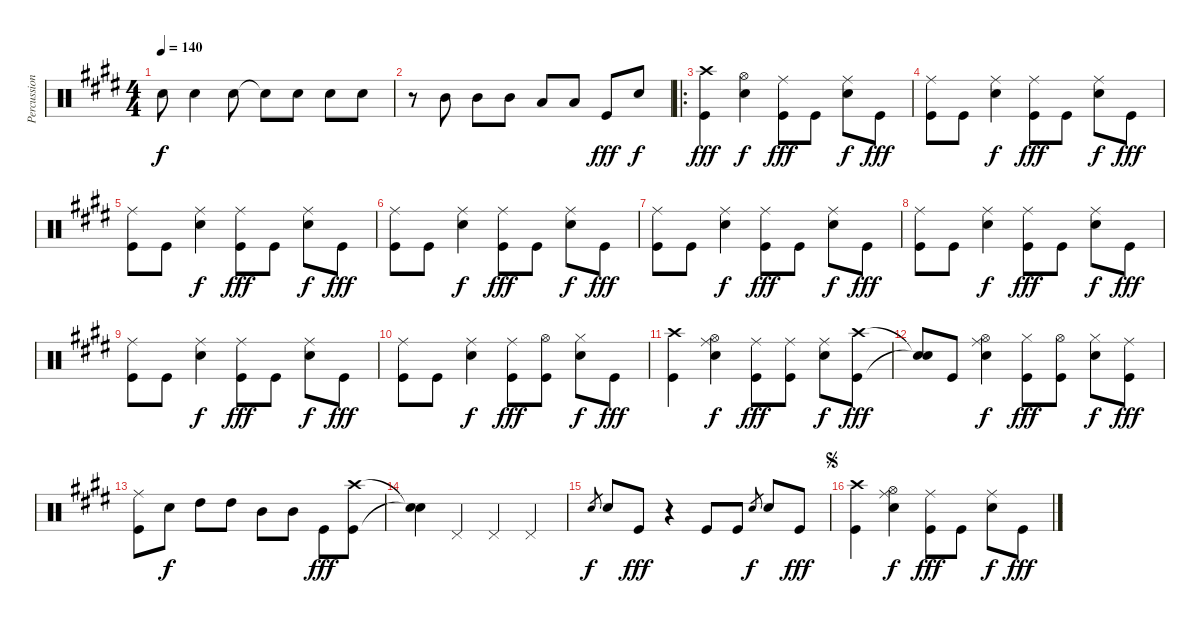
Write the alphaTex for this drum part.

\track ("Percussion" "Percussion") {instrument percussion}
\staff {score}
\articulation defaults
\ts (4 4)
\tempo 140
\clef neutral
\ks e "Snare (hit)"{t}.8{dy f} "Snare (hit) 2".4 "Snare (hit) 2".8 "Snare (hit)"{t}.8 "Snare (hit) 2".8 "Snare (hit) 2".8 "Snare (hit) 2".8
|
r.8 "Mid Tom (hit)".8 "Mid Tom (hit)".8 "Mid Tom (hit)".8 "Low Tom (hit)".8 "Low Tom (hit)".8 "Kick (hit)".8{dy fff} "Snare (hit) 2".8{dy f} |
\ro
("Crash high (hit)" "Kick (hit)").4{dy fff} ("Hi-Hat (open)" "Snare (hit) 2").4{dy f} ("Ride (middle)" "Kick (hit)").8{dy fff} "Kick (hit)".8 ("Ride (middle)" "Snare (hit) 2").8{dy f} "Kick (hit)".8{dy fff} |
("Ride (middle)" "Kick (hit)").8 "Kick (hit)".8 ("Ride (middle)" "Snare (hit) 2").4{dy f} ("Ride (middle)" "Kick (hit)").8{dy fff} "Kick (hit)".8 ("Ride (middle)" "Snare (hit) 2").8{dy f} "Kick (hit)".8{dy fff} |
("Ride (middle)" "Kick (hit)").8 "Kick (hit)".8 ("Ride (middle)" "Snare (hit) 2").4{dy f} ("Ride (middle)" "Kick (hit)").8{dy fff} "Kick (hit)".8 ("Ride (middle)" "Snare (hit) 2").8{dy f} "Kick (hit)".8{dy fff} |
("Ride (middle)" "Kick (hit)").8 "Kick (hit)".8 ("Ride (middle)" "Snare (hit) 2").4{dy f} ("Ride (middle)" "Kick (hit)").8{dy fff} "Kick (hit)".8 ("Ride (middle)" "Snare (hit) 2").8{dy f} "Kick (hit)".8{dy fff} |
("Ride (middle)" "Kick (hit)").8 "Kick (hit)".8 ("Ride (middle)" "Snare (hit) 2").4{dy f} ("Ride (middle)" "Kick (hit)").8{dy fff} "Kick (hit)".8 ("Ride (middle)" "Snare (hit) 2").8{dy f} "Kick (hit)".8{dy fff} |
("Ride (middle)" "Kick (hit)").8 "Kick (hit)".8 ("Ride (middle)" "Snare (hit) 2").4{dy f} ("Ride (middle)" "Kick (hit)").8{dy fff} "Kick (hit)".8 ("Ride (middle)" "Snare (hit) 2").8{dy f} "Kick (hit)".8{dy fff} |
("Ride (middle)" "Kick (hit)").8 "Kick (hit)".8 ("Ride (middle)" "Snare (hit) 2").4{dy f} ("Ride (middle)" "Kick (hit)").8{dy fff} "Kick (hit)".8 ("Ride (middle)" "Snare (hit) 2").8{dy f} "Kick (hit)".8{dy fff} |
("Ride (middle)" "Kick (hit)").8 "Kick (hit)".8 ("Ride (middle)" "Snare (hit) 2").4{dy f} ("Ride (middle)" "Kick (hit)").8{dy fff} ("Hi-Hat (open)" "Kick (hit)").8 ("Hi-Hat (closed)" "Snare (hit) 2").8{dy f} "Kick (hit)".8{dy fff} |
("Crash high (hit)" "Kick (hit)").4 ("Hi-Hat (open)" "Ride (middle)" "Snare (hit) 2").4{dy f} ("Ride (middle)" "Kick (hit)").8{dy fff} ("Ride (middle)" "Kick (hit)").8 ("Ride (middle)" "Snare (hit) 2").8{dy f} ("Crash high (hit)" "Kick (hit)").8{dy fff} |
("Snare (hit)"{t} "Snare (hit)"{t}).8 "Kick (hit)".8 ("Hi-Hat (open)" "Ride (middle)" "Snare (hit) 2").4{dy f} ("Hi-Hat (closed)" "Kick (hit)").8{dy fff} ("Hi-Hat (open)" "Kick (hit)").8 ("Hi-Hat (closed)" "Snare (hit) 2").8{dy f} ("Ride (middle)" "Kick (hit)").8{dy fff} |
("Ride (middle)" "Kick (hit)").8 "Snare (hit) 2".8{dy f} "High Tom (hit)".8 "High Tom (hit)".8 "Mid Tom (hit)".8 "Mid Tom (hit)".8 "Kick (hit)".8{dy fff} ("Crash high (hit)" "Kick (hit)").8 |
("Snare (hit)"{t} "Snare (hit)"{t}).4 "Pedal Hi-Hat (hit)".4 "Pedal Hi-Hat (hit)".4 "Pedal Hi-Hat (hit)".4 |
"Snare (hit) 2".8{gr dy f} "Snare (hit) 2".8 "Kick (hit)".8{dy fff} r.4 "Kick (hit)".8 "Kick (hit)".8 "Snare (hit) 2".8{gr dy f} "Snare (hit) 2".8 "Kick (hit)".8{dy fff} |
\jump segno
("Crash high (hit)" "Kick (hit)").4 ("Hi-Hat (open)" "Ride (middle)" "Snare (hit) 2").4{dy f} ("Ride (middle)" "Kick (hit)").8{dy fff} "Kick (hit)".8 ("Ride (middle)" "Snare (hit) 2").8{dy f} "Kick (hit)".8{dy fff}
